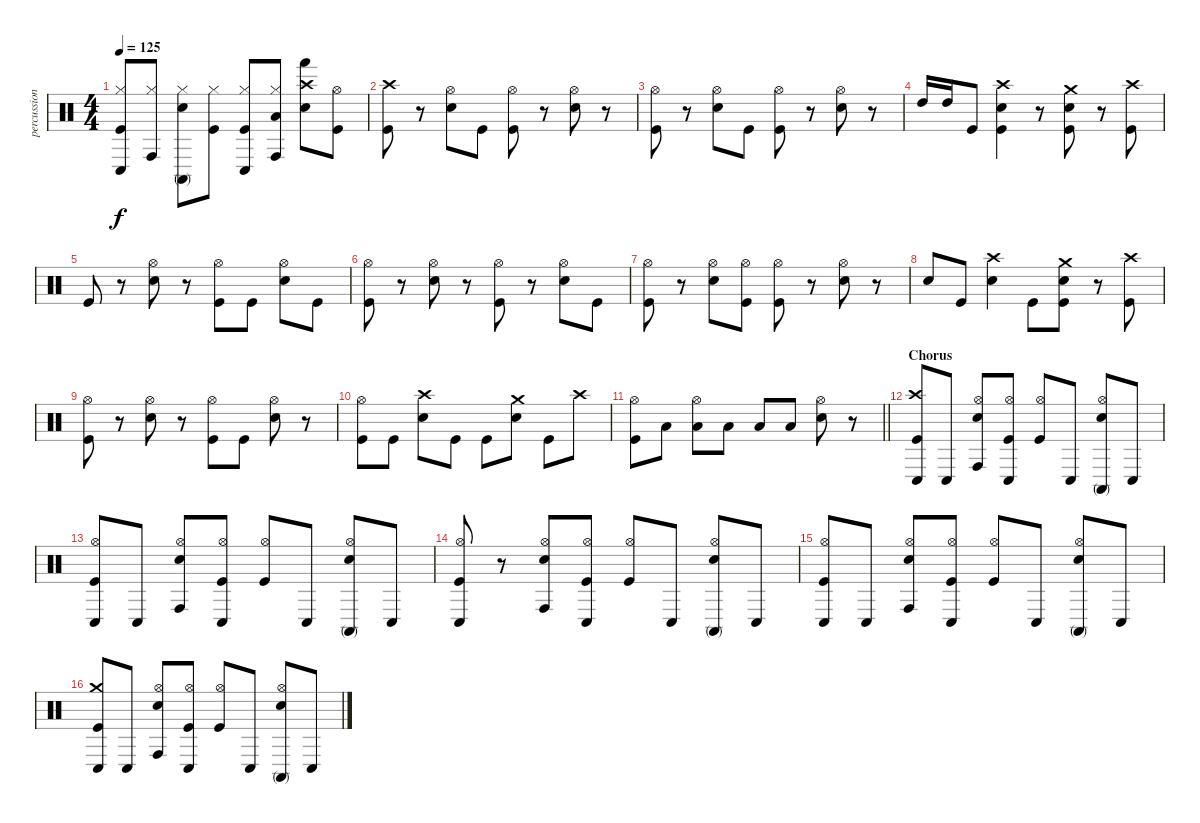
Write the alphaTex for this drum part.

\track ("percussion" "percussion") {instrument percussion}
\staff {score}
\articulation defaults
\ts (4 4)
\tempo 125
\clef neutral
\ks c
("Conga low (hit)" "Hi-Hat (closed)" "Kick (hit)").8{dy f} ("Conga high (hit)" "Hi-Hat (closed)").8 ("Conga high (mute)" "Electric Snare (hit)" "Hi-Hat (closed)").8 ("Hi-Hat (closed)" "Kick (hit)").8 ("Conga low (hit)" "Hi-Hat (closed)" "Kick (hit)").8 ("Conga high (hit)" "Low Floor Tom (hit)" "Hi-Hat (closed)").8 ("Crash high (hit)" "Hand (hit)" "Electric Snare (hit)").8 ("Hi-Hat (open)" "Kick (hit)").8 |
("Crash high (hit)" "Kick (hit)").8 r.8 ("Electric Snare (hit)" "Hi-Hat (open)").8 "Kick (hit)".8 ("Hi-Hat (open)" "Kick (hit)").8 r.8 ("Electric Snare (hit)" "Hi-Hat (open)").8 r.8 |
("Hi-Hat (open)" "Kick (hit)").8 r.8 ("Electric Snare (hit)" "Hi-Hat (open)").8 "Kick (hit)".8 ("Hi-Hat (open)" "Kick (hit)").8 r.8 ("Electric Snare (hit)" "Hi-Hat (open)").8 r.8 |
"High Tom (hit)".16 "High Tom (hit)".16 "Kick (hit)".8 ("Crash high (hit)" "Electric Snare (hit)" "Kick (hit)").4 r.8 ("Crash medium (hit)" "Electric Snare (hit)" "Kick (hit)").8 r.8 ("Crash high (hit)" "Kick (hit)").8 |
"Kick (hit)".8 r.8 ("Electric Snare (hit)" "Hi-Hat (open)").8 r.8 ("Hi-Hat (open)" "Kick (hit)").8 "Kick (hit)".8 ("Electric Snare (hit)" "Hi-Hat (open)").8 "Kick (hit)".8 |
("Hi-Hat (open)" "Kick (hit)").8 r.8 ("Electric Snare (hit)" "Hi-Hat (open)").8 r.8 ("Hi-Hat (open)" "Kick (hit)").8 r.8 ("Electric Snare (hit)" "Hi-Hat (open)").8 "Kick (hit)".8 |
("Hi-Hat (open)" "Kick (hit)").8 r.8 ("Electric Snare (hit)" "Hi-Hat (open)").8 ("Hi-Hat (open)" "Kick (hit)").8 ("Hi-Hat (open)" "Kick (hit)").8 r.8 ("Electric Snare (hit)" "Hi-Hat (open)").8 r.8 |
"Electric Snare (hit)".8 "Kick (hit)".8 ("Crash high (hit)" "Electric Snare (hit)").4 "Kick (hit)".8 ("Crash medium (hit)" "Electric Snare (hit)" "Kick (hit)").8 r.8 ("Crash high (hit)" "Kick (hit)").8 |
("Hi-Hat (open)" "Kick (hit)").8 r.8 ("Electric Snare (hit)" "Hi-Hat (open)").8 r.8 ("Hi-Hat (open)" "Kick (hit)").8 "Kick (hit)".8 ("Electric Snare (hit)" "Hi-Hat (open)").8 r.8 |
("Hi-Hat (open)" "Kick (hit)").8 "Kick (hit)".8 ("Crash high (hit)" "Electric Snare (hit)").8 "Kick (hit)".8 "Kick (hit)".8 ("Crash medium (hit)" "Electric Snare (hit)").8 "Kick (hit)".8 "Crash high (hit)".8 |
\barLineRight lightlight
("Hi-Hat (open)" "Kick (hit)").8 "Low Tom (hit)".8 ("Low Tom (hit)" "Hi-Hat (open)").8 "Low Tom (hit)".8 "Low Tom (hit)".8 "Low Tom (hit)".8 ("Electric Snare (hit)" "Hi-Hat (open)").8 r.8 |
\section ("" "Chorus")
("Crash high (hit)" "Conga low (hit)" "Kick (hit)").8 "Conga low (hit)".8 ("Conga high (hit)" "Electric Snare (hit)" "Hi-Hat (open)").8 ("Conga low (hit)" "Hi-Hat (open)" "Kick (hit)").8 ("Hi-Hat (open)" "Kick (hit)").8 "Conga low (hit)".8 ("Conga high (mute)" "Electric Snare (hit)" "Hi-Hat (open)").8 "Conga low (hit)".8 |
("Conga low (hit)" "Hi-Hat (open)" "Kick (hit)").8 "Conga low (hit)".8 ("Conga high (hit)" "Electric Snare (hit)" "Hi-Hat (open)").8 ("Conga low (hit)" "Hi-Hat (open)" "Kick (hit)").8 ("Hi-Hat (open)" "Kick (hit)").8 "Conga low (hit)".8 ("Conga high (mute)" "Electric Snare (hit)" "Hi-Hat (open)").8 "Conga low (hit)".8 |
("Conga low (hit)" "Hi-Hat (open)" "Kick (hit)").8 r.8 ("Conga high (hit)" "Electric Snare (hit)" "Hi-Hat (open)").8 ("Conga low (hit)" "Hi-Hat (open)" "Kick (hit)").8 ("Hi-Hat (open)" "Kick (hit)").8 "Conga low (hit)".8 ("Conga high (mute)" "Electric Snare (hit)" "Hi-Hat (open)").8 "Conga low (hit)".8 |
("Conga low (hit)" "Hi-Hat (open)" "Kick (hit)").8 "Conga low (hit)".8 ("Conga high (hit)" "Electric Snare (hit)" "Hi-Hat (open)").8 ("Conga low (hit)" "Hi-Hat (open)" "Kick (hit)").8 ("Hi-Hat (open)" "Kick (hit)").8 "Conga low (hit)".8 ("Conga high (mute)" "Electric Snare (hit)" "Hi-Hat (open)").8 "Conga low (hit)".8 |
("Crash medium (hit)" "Conga low (hit)" "Kick (hit)").8 "Conga low (hit)".8 ("Conga high (hit)" "Electric Snare (hit)" "Hi-Hat (open)").8 ("Conga low (hit)" "Hi-Hat (open)" "Kick (hit)").8 ("Hi-Hat (open)" "Kick (hit)").8 "Conga low (hit)".8 ("Conga high (mute)" "Electric Snare (hit)" "Hi-Hat (open)").8 "Conga low (hit)".8
